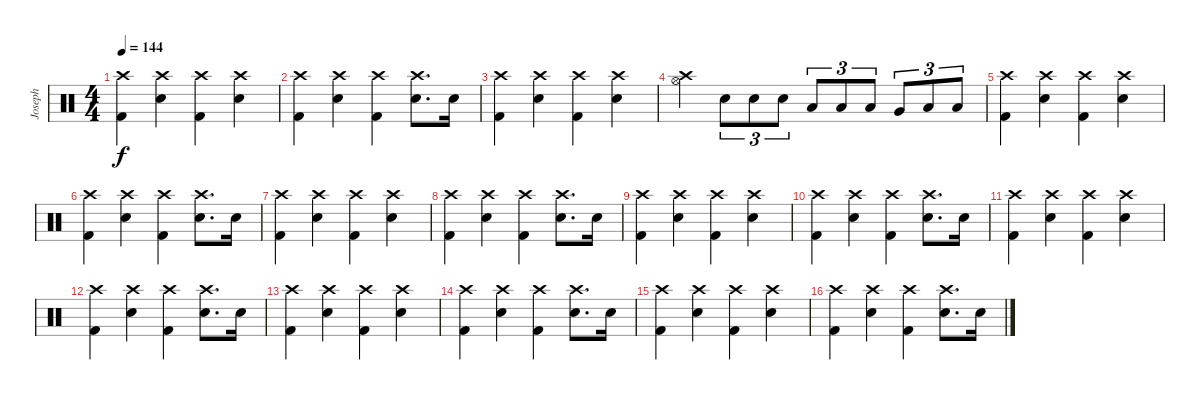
\track ("Joseph" "Joseph") {instrument percussion}
\staff {score}
\articulation defaults
\ts (4 4)
\tempo 144
\clef neutral
\ks c
("Crash high (hit)" "Kick (hit) 2").4{dy f} ("Crash high (hit)" "Electric Snare (hit)").4 ("Crash high (hit)" "Kick (hit) 2").4 ("Crash high (hit)" "Electric Snare (hit)").4 |
("Crash high (hit)" "Kick (hit) 2").4 ("Crash high (hit)" "Electric Snare (hit)").4 ("Crash high (hit)" "Kick (hit) 2").4 ("Crash high (hit)" "Electric Snare (hit)").8{d} "Electric Snare (hit)".16 |
("Crash high (hit)" "Kick (hit) 2").4 ("Crash high (hit)" "Electric Snare (hit)").4 ("Crash high (hit)" "Kick (hit) 2").4 ("Crash high (hit)" "Electric Snare (hit)").4 |
("Crash high (hit)" "Hi-Hat (open)").4 "Electric Snare (hit)".8{tu (3 2)} "Electric Snare (hit)".8{tu (3 2)} "Electric Snare (hit)".8{tu (3 2)} "Low Tom (hit)".8{tu (3 2)} "Low Tom (hit)".8{tu (3 2)} "Low Tom (hit)".8{tu (3 2)} "Very Low Tom (hit)".8{tu (3 2)} "Low Floor Tom (hit)".8{tu (3 2)} "Low Floor Tom (hit)".8{tu (3 2)} |
("Crash high (hit)" "Kick (hit) 2").4 ("Crash high (hit)" "Electric Snare (hit)").4 ("Crash high (hit)" "Kick (hit) 2").4 ("Crash high (hit)" "Electric Snare (hit)").4 |
("Crash high (hit)" "Kick (hit) 2").4 ("Crash high (hit)" "Electric Snare (hit)").4 ("Crash high (hit)" "Kick (hit) 2").4 ("Crash high (hit)" "Electric Snare (hit)").8{d} "Electric Snare (hit)".16 |
("Crash high (hit)" "Kick (hit) 2").4 ("Crash high (hit)" "Electric Snare (hit)").4 ("Crash high (hit)" "Kick (hit) 2").4 ("Crash high (hit)" "Electric Snare (hit)").4 |
("Crash high (hit)" "Kick (hit) 2").4 ("Crash high (hit)" "Electric Snare (hit)").4 ("Crash high (hit)" "Kick (hit) 2").4 ("Crash high (hit)" "Electric Snare (hit)").8{d} "Electric Snare (hit)".16 |
("Crash high (hit)" "Kick (hit) 2").4 ("Crash high (hit)" "Electric Snare (hit)").4 ("Crash high (hit)" "Kick (hit) 2").4 ("Crash high (hit)" "Electric Snare (hit)").4 |
("Crash high (hit)" "Kick (hit) 2").4 ("Crash high (hit)" "Electric Snare (hit)").4 ("Crash high (hit)" "Kick (hit) 2").4 ("Crash high (hit)" "Electric Snare (hit)").8{d} "Electric Snare (hit)".16 |
("Crash high (hit)" "Kick (hit) 2").4 ("Crash high (hit)" "Electric Snare (hit)").4 ("Crash high (hit)" "Kick (hit) 2").4 ("Crash high (hit)" "Electric Snare (hit)").4 |
("Crash high (hit)" "Kick (hit) 2").4 ("Crash high (hit)" "Electric Snare (hit)").4 ("Crash high (hit)" "Kick (hit) 2").4 ("Crash high (hit)" "Electric Snare (hit)").8{d} "Electric Snare (hit)".16 |
("Crash high (hit)" "Kick (hit) 2").4 ("Crash high (hit)" "Electric Snare (hit)").4 ("Crash high (hit)" "Kick (hit) 2").4 ("Crash high (hit)" "Electric Snare (hit)").4 |
("Crash high (hit)" "Kick (hit) 2").4 ("Crash high (hit)" "Electric Snare (hit)").4 ("Crash high (hit)" "Kick (hit) 2").4 ("Crash high (hit)" "Electric Snare (hit)").8{d} "Electric Snare (hit)".16 |
("Crash high (hit)" "Kick (hit) 2").4 ("Crash high (hit)" "Electric Snare (hit)").4 ("Crash high (hit)" "Kick (hit) 2").4 ("Crash high (hit)" "Electric Snare (hit)").4 |
("Crash high (hit)" "Kick (hit) 2").4 ("Crash high (hit)" "Electric Snare (hit)").4 ("Crash high (hit)" "Kick (hit) 2").4 ("Crash high (hit)" "Electric Snare (hit)").8{d} "Electric Snare (hit)".16
